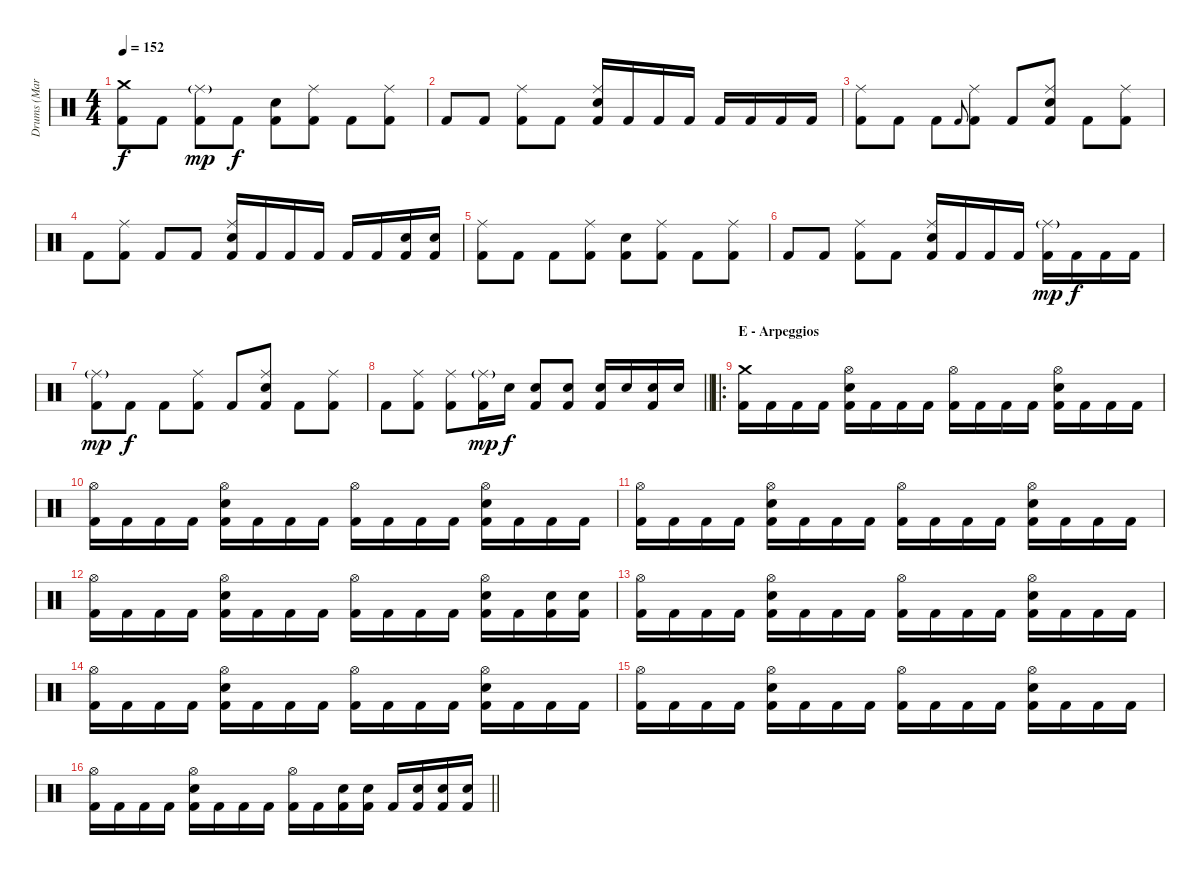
\track ("Drums (Mark Arrington)" "Drums (Mar") {instrument percussion}
\staff {score}
\articulation defaults
\ts (4 4)
\tempo 152
\clef neutral
\ks aminor
("Crash medium (hit)" "Kick (hit) 2").8{dy f} "Kick (hit) 2".8 ("Ride (middle)"{g} "Kick (hit) 2").8{dy mp} "Kick (hit) 2".8{dy f} ("Electric Snare (hit)" "Kick (hit) 2").8 ("Ride (middle)" "Kick (hit) 2").8 "Kick (hit) 2".8 ("Ride (middle)" "Kick (hit) 2").8 |
"Kick (hit) 2".8 "Kick (hit) 2".8 ("Ride (middle)" "Kick (hit) 2").8 "Kick (hit) 2".8 ("Ride (middle)" "Electric Snare (hit)" "Kick (hit) 2").16 "Kick (hit) 2".16 "Kick (hit) 2".16 "Kick (hit) 2".16 "Kick (hit) 2".16 "Kick (hit) 2".16 "Kick (hit) 2".16 "Kick (hit) 2".16 |
("Ride (middle)" "Kick (hit) 2").8 "Kick (hit) 2".8 "Kick (hit) 2".8 "Kick (hit) 2".8{gr onbeat} ("Ride (middle)" "Kick (hit) 2").8 "Kick (hit) 2".8 ("Ride (middle)" "Electric Snare (hit)" "Kick (hit) 2").8 "Kick (hit) 2".8 ("Ride (middle)" "Kick (hit) 2").8 |
"Kick (hit) 2".8 ("Ride (middle)" "Kick (hit) 2").8 "Kick (hit) 2".8 "Kick (hit) 2".8 ("Ride (middle)" "Electric Snare (hit)" "Kick (hit) 2").16 "Kick (hit) 2".16 "Kick (hit) 2".16 "Kick (hit) 2".16 "Kick (hit) 2".16 "Kick (hit) 2".16 ("Electric Snare (hit)" "Kick (hit) 2").16 ("Electric Snare (hit)" "Kick (hit) 2").16 |
("Ride (middle)" "Kick (hit) 2").8 "Kick (hit) 2".8 "Kick (hit) 2".8 ("Ride (middle)" "Kick (hit) 2").8 ("Electric Snare (hit)" "Kick (hit) 2").8 ("Ride (middle)" "Kick (hit) 2").8 "Kick (hit) 2".8 ("Ride (middle)" "Kick (hit) 2").8 |
"Kick (hit) 2".8 "Kick (hit) 2".8 ("Ride (middle)" "Kick (hit) 2").8 "Kick (hit) 2".8 ("Ride (middle)" "Electric Snare (hit)" "Kick (hit) 2").16 "Kick (hit) 2".16 "Kick (hit) 2".16 "Kick (hit) 2".16 ("Ride (middle)"{g} "Kick (hit) 2").16{dy mp} "Kick (hit) 2".16{dy f} "Kick (hit) 2".16 "Kick (hit) 2".16 |
("Ride (middle)"{g} "Kick (hit) 2").8{dy mp} "Kick (hit) 2".8{dy f} "Kick (hit) 2".8 ("Ride (middle)" "Kick (hit) 2").8 "Kick (hit) 2".8 ("Ride (middle)" "Electric Snare (hit)" "Kick (hit) 2").8 "Kick (hit) 2".8 ("Ride (middle)" "Kick (hit) 2").8 |
\barLineRight lightlight "Kick (hit) 2".8
("Ride (middle)" "Kick (hit) 2").8 ("Ride (middle)" "Kick (hit) 2").8 ("Ride (middle)"{g} "Kick (hit) 2").16{dy mp} "Electric Snare (hit)".16{dy f} ("Electric Snare (hit)" "Kick (hit) 2").8 ("Electric Snare (hit)" "Kick (hit) 2").8 ("Electric Snare (hit)" "Kick (hit) 2").16 "Electric Snare (hit)".16 ("Electric Snare (hit)" "Kick (hit) 2").16 "Electric Snare (hit)".16 |
\ro
\section ("" "E - Arpeggios")
("Crash medium (hit)" "Kick (hit) 2").16 "Kick (hit) 2".16 "Kick (hit) 2".16 "Kick (hit) 2".16 ("Hi-Hat (open)" "Electric Snare (hit)" "Kick (hit) 2").16 "Kick (hit) 2".16 "Kick (hit) 2".16 "Kick (hit) 2".16 ("Hi-Hat (open)" "Kick (hit) 2").16 "Kick (hit) 2".16 "Kick (hit) 2".16 "Kick (hit) 2".16 ("Hi-Hat (open)" "Electric Snare (hit)" "Kick (hit) 2").16 "Kick (hit) 2".16 "Kick (hit) 2".16 "Kick (hit) 2".16 |
("Hi-Hat (open)" "Kick (hit) 2").16 "Kick (hit) 2".16 "Kick (hit) 2".16 "Kick (hit) 2".16 ("Hi-Hat (open)" "Electric Snare (hit)" "Kick (hit) 2").16 "Kick (hit) 2".16 "Kick (hit) 2".16 "Kick (hit) 2".16 ("Hi-Hat (open)" "Kick (hit) 2").16 "Kick (hit) 2".16 "Kick (hit) 2".16 "Kick (hit) 2".16 ("Hi-Hat (open)" "Electric Snare (hit)" "Kick (hit) 2").16 "Kick (hit) 2".16 "Kick (hit) 2".16 "Kick (hit) 2".16 |
("Hi-Hat (open)" "Kick (hit) 2").16 "Kick (hit) 2".16 "Kick (hit) 2".16 "Kick (hit) 2".16 ("Hi-Hat (open)" "Electric Snare (hit)" "Kick (hit) 2").16 "Kick (hit) 2".16 "Kick (hit) 2".16 "Kick (hit) 2".16 ("Hi-Hat (open)" "Kick (hit) 2").16 "Kick (hit) 2".16 "Kick (hit) 2".16 "Kick (hit) 2".16 ("Hi-Hat (open)" "Electric Snare (hit)" "Kick (hit) 2").16 "Kick (hit) 2".16 "Kick (hit) 2".16 "Kick (hit) 2".16 |
("Hi-Hat (open)" "Kick (hit) 2").16 "Kick (hit) 2".16 "Kick (hit) 2".16 "Kick (hit) 2".16 ("Hi-Hat (open)" "Electric Snare (hit)" "Kick (hit) 2").16 "Kick (hit) 2".16 "Kick (hit) 2".16 "Kick (hit) 2".16 ("Hi-Hat (open)" "Kick (hit) 2").16 "Kick (hit) 2".16 "Kick (hit) 2".16 "Kick (hit) 2".16 ("Hi-Hat (open)" "Electric Snare (hit)" "Kick (hit) 2").16 "Kick (hit) 2".16 ("Electric Snare (hit)" "Kick (hit) 2").16 ("Electric Snare (hit)" "Kick (hit) 2").16 |
("Hi-Hat (open)" "Kick (hit) 2").16 "Kick (hit) 2".16 "Kick (hit) 2".16 "Kick (hit) 2".16 ("Hi-Hat (open)" "Electric Snare (hit)" "Kick (hit) 2").16 "Kick (hit) 2".16 "Kick (hit) 2".16 "Kick (hit) 2".16 ("Hi-Hat (open)" "Kick (hit) 2").16 "Kick (hit) 2".16 "Kick (hit) 2".16 "Kick (hit) 2".16 ("Hi-Hat (open)" "Electric Snare (hit)" "Kick (hit) 2").16 "Kick (hit) 2".16 "Kick (hit) 2".16 "Kick (hit) 2".16 |
("Hi-Hat (open)" "Kick (hit) 2").16 "Kick (hit) 2".16 "Kick (hit) 2".16 "Kick (hit) 2".16 ("Hi-Hat (open)" "Electric Snare (hit)" "Kick (hit) 2").16 "Kick (hit) 2".16 "Kick (hit) 2".16 "Kick (hit) 2".16 ("Hi-Hat (open)" "Kick (hit) 2").16 "Kick (hit) 2".16 "Kick (hit) 2".16 "Kick (hit) 2".16 ("Hi-Hat (open)" "Electric Snare (hit)" "Kick (hit) 2").16 "Kick (hit) 2".16 "Kick (hit) 2".16 "Kick (hit) 2".16 |
("Hi-Hat (open)" "Kick (hit) 2").16 "Kick (hit) 2".16 "Kick (hit) 2".16 "Kick (hit) 2".16 ("Hi-Hat (open)" "Electric Snare (hit)" "Kick (hit) 2").16 "Kick (hit) 2".16 "Kick (hit) 2".16 "Kick (hit) 2".16 ("Hi-Hat (open)" "Kick (hit) 2").16 "Kick (hit) 2".16 "Kick (hit) 2".16 "Kick (hit) 2".16 ("Hi-Hat (open)" "Electric Snare (hit)" "Kick (hit) 2").16 "Kick (hit) 2".16 "Kick (hit) 2".16 "Kick (hit) 2".16 |
\barLineRight lightlight
("Hi-Hat (open)" "Kick (hit) 2").16 "Kick (hit) 2".16 "Kick (hit) 2".16 "Kick (hit) 2".16 ("Hi-Hat (open)" "Electric Snare (hit)" "Kick (hit) 2").16 "Kick (hit) 2".16 "Kick (hit) 2".16 "Kick (hit) 2".16 ("Hi-Hat (open)" "Kick (hit) 2").16 "Kick (hit) 2".16 ("Electric Snare (hit)" "Kick (hit) 2").16 ("Electric Snare (hit)" "Kick (hit) 2").16 "Kick (hit) 2".16 ("Electric Snare (hit)" "Kick (hit) 2").16 ("Electric Snare (hit)" "Kick (hit) 2").16 ("Electric Snare (hit)" "Kick (hit) 2").16
